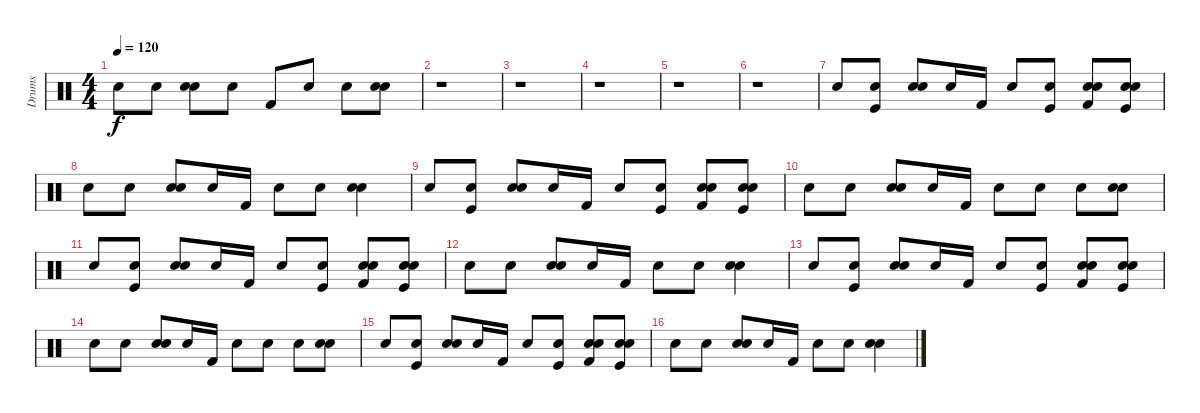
\track ("Drums" "Drums") {instrument percussion}
\staff {score}
\articulation defaults
\ts (4 4)
\tempo 120
\clef neutral
\ks c "Snare (hit) 2".8{dy f} "Snare (hit) 2".8
("Electric Snare (hit)" "Snare (hit) 2").8 "Snare (hit) 2".8 "Kick (hit) 2".8 "Snare (hit) 2".8 "Snare (hit) 2".8 ("Electric Snare (hit)" "Snare (hit) 2").8 |
r.1 |
r.1 |
r.1 |
r.1 |
r.1 |
"Snare (hit) 2".8 ("Snare (hit) 2" "Kick (hit)").8 ("Electric Snare (hit)" "Snare (hit) 2").8 "Snare (hit) 2".16 "Kick (hit) 2".16 "Snare (hit) 2".8 ("Snare (hit) 2" "Kick (hit)").8 ("Electric Snare (hit)" "Snare (hit) 2" "Kick (hit) 2").8 ("Electric Snare (hit)" "Snare (hit) 2" "Kick (hit)").8 |
"Snare (hit) 2".8 "Snare (hit) 2".8 ("Electric Snare (hit)" "Snare (hit) 2").8 "Snare (hit) 2".16 "Kick (hit) 2".16 "Snare (hit) 2".8 "Snare (hit) 2".8 ("Electric Snare (hit)" "Snare (hit) 2").4 |
"Snare (hit) 2".8 ("Snare (hit) 2" "Kick (hit)").8 ("Electric Snare (hit)" "Snare (hit) 2").8 "Snare (hit) 2".16 "Kick (hit) 2".16 "Snare (hit) 2".8 ("Snare (hit) 2" "Kick (hit)").8 ("Electric Snare (hit)" "Snare (hit) 2" "Kick (hit) 2").8 ("Electric Snare (hit)" "Snare (hit) 2" "Kick (hit)").8 |
"Snare (hit) 2".8 "Snare (hit) 2".8 ("Electric Snare (hit)" "Snare (hit) 2").8 "Snare (hit) 2".16 "Kick (hit) 2".16 "Snare (hit) 2".8 "Snare (hit) 2".8 "Snare (hit) 2".8 ("Electric Snare (hit)" "Snare (hit) 2").8 |
"Snare (hit) 2".8 ("Snare (hit) 2" "Kick (hit)").8 ("Electric Snare (hit)" "Snare (hit) 2").8 "Snare (hit) 2".16 "Kick (hit) 2".16 "Snare (hit) 2".8 ("Snare (hit) 2" "Kick (hit)").8 ("Electric Snare (hit)" "Snare (hit) 2" "Kick (hit) 2").8 ("Electric Snare (hit)" "Snare (hit) 2" "Kick (hit)").8 |
"Snare (hit) 2".8 "Snare (hit) 2".8 ("Electric Snare (hit)" "Snare (hit) 2").8 "Snare (hit) 2".16 "Kick (hit) 2".16 "Snare (hit) 2".8 "Snare (hit) 2".8 ("Electric Snare (hit)" "Snare (hit) 2").4 |
"Snare (hit) 2".8 ("Snare (hit) 2" "Kick (hit)").8 ("Electric Snare (hit)" "Snare (hit) 2").8 "Snare (hit) 2".16 "Kick (hit) 2".16 "Snare (hit) 2".8 ("Snare (hit) 2" "Kick (hit)").8 ("Electric Snare (hit)" "Snare (hit) 2" "Kick (hit) 2").8 ("Electric Snare (hit)" "Snare (hit) 2" "Kick (hit)").8 |
"Snare (hit) 2".8 "Snare (hit) 2".8 ("Electric Snare (hit)" "Snare (hit) 2").8 "Snare (hit) 2".16 "Kick (hit) 2".16 "Snare (hit) 2".8 "Snare (hit) 2".8 "Snare (hit) 2".8 ("Electric Snare (hit)" "Snare (hit) 2").8 |
"Snare (hit) 2".8 ("Snare (hit) 2" "Kick (hit)").8 ("Electric Snare (hit)" "Snare (hit) 2").8 "Snare (hit) 2".16 "Kick (hit) 2".16 "Snare (hit) 2".8 ("Snare (hit) 2" "Kick (hit)").8 ("Electric Snare (hit)" "Snare (hit) 2" "Kick (hit) 2").8 ("Electric Snare (hit)" "Snare (hit) 2" "Kick (hit)").8 |
"Snare (hit) 2".8 "Snare (hit) 2".8 ("Electric Snare (hit)" "Snare (hit) 2").8 "Snare (hit) 2".16 "Kick (hit) 2".16 "Snare (hit) 2".8 "Snare (hit) 2".8 ("Electric Snare (hit)" "Snare (hit) 2").4
